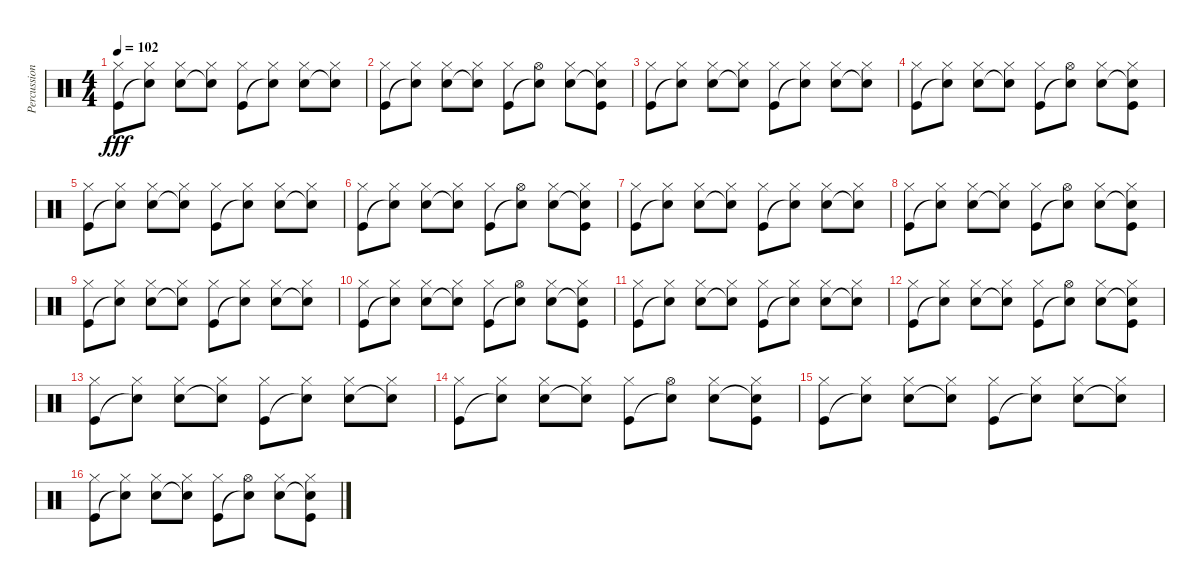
\track ("Percussion" "Percussion") {instrument percussion}
\staff {score}
\articulation defaults
\ts (4 4)
\tempo 102
\clef neutral
\ks aminor
("Hi-Hat (closed)" "Kick (hit)").8{dy fff} ("Hi-Hat (closed)" "Snare (hit)"{t}).8 ("Hi-Hat (closed)" "Electric Snare (hit)").8 ("Hi-Hat (closed)" "Electric Snare (hit)"{t}).8 ("Hi-Hat (closed)" "Kick (hit)").8 ("Hi-Hat (closed)" "Snare (hit)"{t}).8 ("Hi-Hat (closed)" "Electric Snare (hit)").8 ("Hi-Hat (closed)" "Snare (hit)"{t}).8 |
("Hi-Hat (closed)" "Kick (hit)").8 ("Hi-Hat (closed)" "Snare (hit)"{t}).8 ("Hi-Hat (closed)" "Electric Snare (hit)").8 ("Hi-Hat (closed)" "Electric Snare (hit)"{t}).8 ("Hi-Hat (closed)" "Kick (hit)").8 ("Hi-Hat (open)" "Snare (hit)"{t}).8 ("Hi-Hat (closed)" "Electric Snare (hit)").8 ("Hi-Hat (closed)" "Snare (hit)"{t} "Kick (hit)").8 |
("Hi-Hat (closed)" "Kick (hit)").8 ("Hi-Hat (closed)" "Snare (hit)"{t}).8 ("Hi-Hat (closed)" "Electric Snare (hit)").8 ("Hi-Hat (closed)" "Electric Snare (hit)"{t}).8 ("Hi-Hat (closed)" "Kick (hit)").8 ("Hi-Hat (closed)" "Snare (hit)"{t}).8 ("Hi-Hat (closed)" "Electric Snare (hit)").8 ("Hi-Hat (closed)" "Snare (hit)"{t}).8 |
("Hi-Hat (closed)" "Kick (hit)").8 ("Hi-Hat (closed)" "Snare (hit)"{t}).8 ("Hi-Hat (closed)" "Electric Snare (hit)").8 ("Hi-Hat (closed)" "Electric Snare (hit)"{t}).8 ("Hi-Hat (closed)" "Kick (hit)").8 ("Hi-Hat (open)" "Snare (hit)"{t}).8 ("Hi-Hat (closed)" "Electric Snare (hit)").8 ("Hi-Hat (closed)" "Snare (hit)"{t} "Kick (hit)").8 |
("Hi-Hat (closed)" "Kick (hit)").8 ("Hi-Hat (closed)" "Snare (hit)"{t}).8 ("Hi-Hat (closed)" "Electric Snare (hit)").8 ("Hi-Hat (closed)" "Electric Snare (hit)"{t}).8 ("Hi-Hat (closed)" "Kick (hit)").8 ("Hi-Hat (closed)" "Snare (hit)"{t}).8 ("Hi-Hat (closed)" "Electric Snare (hit)").8 ("Hi-Hat (closed)" "Snare (hit)"{t}).8 |
("Hi-Hat (closed)" "Kick (hit)").8 ("Hi-Hat (closed)" "Snare (hit)"{t}).8 ("Hi-Hat (closed)" "Electric Snare (hit)").8 ("Hi-Hat (closed)" "Electric Snare (hit)"{t}).8 ("Hi-Hat (closed)" "Kick (hit)").8 ("Hi-Hat (open)" "Snare (hit)"{t}).8 ("Hi-Hat (closed)" "Electric Snare (hit)").8 ("Hi-Hat (closed)" "Snare (hit)"{t} "Kick (hit)").8 |
("Hi-Hat (closed)" "Kick (hit)").8 ("Hi-Hat (closed)" "Snare (hit)"{t}).8 ("Hi-Hat (closed)" "Electric Snare (hit)").8 ("Hi-Hat (closed)" "Electric Snare (hit)"{t}).8 ("Hi-Hat (closed)" "Kick (hit)").8 ("Hi-Hat (closed)" "Snare (hit)"{t}).8 ("Hi-Hat (closed)" "Electric Snare (hit)").8 ("Hi-Hat (closed)" "Snare (hit)"{t}).8 |
("Hi-Hat (closed)" "Kick (hit)").8 ("Hi-Hat (closed)" "Snare (hit)"{t}).8 ("Hi-Hat (closed)" "Electric Snare (hit)").8 ("Hi-Hat (closed)" "Electric Snare (hit)"{t}).8 ("Hi-Hat (closed)" "Kick (hit)").8 ("Hi-Hat (open)" "Snare (hit)"{t}).8 ("Hi-Hat (closed)" "Electric Snare (hit)").8 ("Hi-Hat (closed)" "Snare (hit)"{t} "Kick (hit)").8 |
("Hi-Hat (closed)" "Kick (hit)").8 ("Hi-Hat (closed)" "Snare (hit)"{t}).8 ("Hi-Hat (closed)" "Electric Snare (hit)").8 ("Hi-Hat (closed)" "Electric Snare (hit)"{t}).8 ("Hi-Hat (closed)" "Kick (hit)").8 ("Hi-Hat (closed)" "Snare (hit)"{t}).8 ("Hi-Hat (closed)" "Electric Snare (hit)").8 ("Hi-Hat (closed)" "Snare (hit)"{t}).8 |
("Hi-Hat (closed)" "Kick (hit)").8 ("Hi-Hat (closed)" "Snare (hit)"{t}).8 ("Hi-Hat (closed)" "Electric Snare (hit)").8 ("Hi-Hat (closed)" "Electric Snare (hit)"{t}).8 ("Hi-Hat (closed)" "Kick (hit)").8 ("Hi-Hat (open)" "Snare (hit)"{t}).8 ("Hi-Hat (closed)" "Electric Snare (hit)").8 ("Hi-Hat (closed)" "Snare (hit)"{t} "Kick (hit)").8 |
("Hi-Hat (closed)" "Kick (hit)").8 ("Hi-Hat (closed)" "Snare (hit)"{t}).8 ("Hi-Hat (closed)" "Electric Snare (hit)").8 ("Hi-Hat (closed)" "Electric Snare (hit)"{t}).8 ("Hi-Hat (closed)" "Kick (hit)").8 ("Hi-Hat (closed)" "Snare (hit)"{t}).8 ("Hi-Hat (closed)" "Electric Snare (hit)").8 ("Hi-Hat (closed)" "Snare (hit)"{t}).8 |
("Hi-Hat (closed)" "Kick (hit)").8 ("Hi-Hat (closed)" "Snare (hit)"{t}).8 ("Hi-Hat (closed)" "Electric Snare (hit)").8 ("Hi-Hat (closed)" "Electric Snare (hit)"{t}).8 ("Hi-Hat (closed)" "Kick (hit)").8 ("Hi-Hat (open)" "Snare (hit)"{t}).8 ("Hi-Hat (closed)" "Electric Snare (hit)").8 ("Hi-Hat (closed)" "Snare (hit)"{t} "Kick (hit)").8 |
("Hi-Hat (closed)" "Kick (hit)").8 ("Hi-Hat (closed)" "Snare (hit)"{t}).8 ("Hi-Hat (closed)" "Electric Snare (hit)").8 ("Hi-Hat (closed)" "Electric Snare (hit)"{t}).8 ("Hi-Hat (closed)" "Kick (hit)").8 ("Hi-Hat (closed)" "Snare (hit)"{t}).8 ("Hi-Hat (closed)" "Electric Snare (hit)").8 ("Hi-Hat (closed)" "Snare (hit)"{t}).8 |
("Hi-Hat (closed)" "Kick (hit)").8 ("Hi-Hat (closed)" "Snare (hit)"{t}).8 ("Hi-Hat (closed)" "Electric Snare (hit)").8 ("Hi-Hat (closed)" "Electric Snare (hit)"{t}).8 ("Hi-Hat (closed)" "Kick (hit)").8 ("Hi-Hat (open)" "Snare (hit)"{t}).8 ("Hi-Hat (closed)" "Electric Snare (hit)").8 ("Hi-Hat (closed)" "Snare (hit)"{t} "Kick (hit)").8 |
("Hi-Hat (closed)" "Kick (hit)").8 ("Hi-Hat (closed)" "Snare (hit)"{t}).8 ("Hi-Hat (closed)" "Electric Snare (hit)").8 ("Hi-Hat (closed)" "Electric Snare (hit)"{t}).8 ("Hi-Hat (closed)" "Kick (hit)").8 ("Hi-Hat (closed)" "Snare (hit)"{t}).8 ("Hi-Hat (closed)" "Electric Snare (hit)").8 ("Hi-Hat (closed)" "Snare (hit)"{t}).8 |
("Hi-Hat (closed)" "Kick (hit)").8 ("Hi-Hat (closed)" "Snare (hit)"{t}).8 ("Hi-Hat (closed)" "Electric Snare (hit)").8 ("Hi-Hat (closed)" "Electric Snare (hit)"{t}).8 ("Hi-Hat (closed)" "Kick (hit)").8 ("Hi-Hat (open)" "Snare (hit)"{t}).8 ("Hi-Hat (closed)" "Electric Snare (hit)").8 ("Hi-Hat (closed)" "Snare (hit)"{t} "Kick (hit)").8
